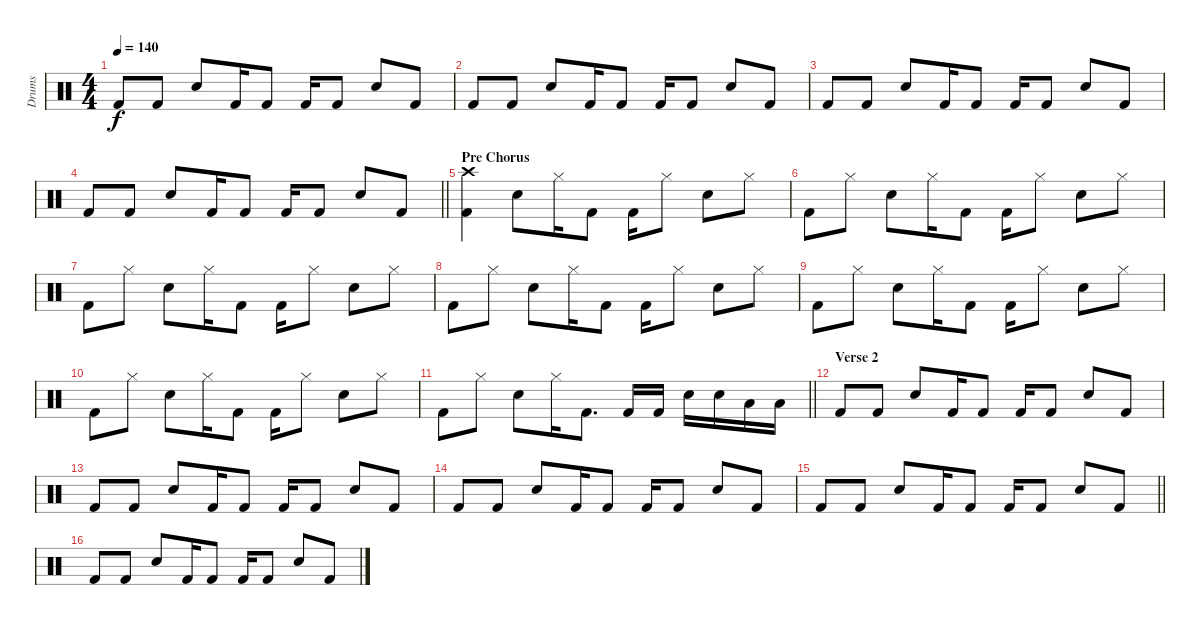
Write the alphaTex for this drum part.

\track ("Drums" "Drums") {instrument percussion}
\staff {score}
\articulation defaults
\ts (4 4)
\tempo 140
\clef neutral
\ks c "Kick (hit) 2".8{dy f} "Kick (hit) 2".8 "Snare (hit) 2".8 "Kick (hit) 2".16 "Kick (hit) 2".8 "Kick (hit) 2".16 "Kick (hit) 2".8 "Snare (hit) 2".8 "Kick (hit) 2".8
|
"Kick (hit) 2".8 "Kick (hit) 2".8 "Snare (hit) 2".8 "Kick (hit) 2".16 "Kick (hit) 2".8 "Kick (hit) 2".16 "Kick (hit) 2".8 "Snare (hit) 2".8 "Kick (hit) 2".8 |
"Kick (hit) 2".8 "Kick (hit) 2".8 "Snare (hit) 2".8 "Kick (hit) 2".16 "Kick (hit) 2".8 "Kick (hit) 2".16 "Kick (hit) 2".8 "Snare (hit) 2".8 "Kick (hit) 2".8 |
\barLineRight lightlight "Kick (hit) 2".8 "Kick (hit) 2".8 "Snare (hit) 2".8 "Kick (hit) 2".16 "Kick (hit) 2".8 "Kick (hit) 2".16 "Kick (hit) 2".8 "Snare (hit) 2".8 "Kick (hit) 2".8
|
\section ("" "Pre Chorus")
("Crash high (hit)" "Kick (hit) 2").4 "Snare (hit) 2".8 "Hi-Hat (closed)".16 "Kick (hit) 2".8 "Kick (hit) 2".16 "Hi-Hat (closed)".8 "Snare (hit) 2".8 "Hi-Hat (closed)".8 |
"Kick (hit) 2".8 "Hi-Hat (closed)".8 "Snare (hit) 2".8 "Hi-Hat (closed)".16 "Kick (hit) 2".8 "Kick (hit) 2".16 "Hi-Hat (closed)".8 "Snare (hit) 2".8 "Hi-Hat (closed)".8 |
"Kick (hit) 2".8 "Hi-Hat (closed)".8 "Snare (hit) 2".8 "Hi-Hat (closed)".16 "Kick (hit) 2".8 "Kick (hit) 2".16 "Hi-Hat (closed)".8 "Snare (hit) 2".8 "Hi-Hat (closed)".8 |
"Kick (hit) 2".8 "Hi-Hat (closed)".8 "Snare (hit) 2".8 "Hi-Hat (closed)".16 "Kick (hit) 2".8 "Kick (hit) 2".16 "Hi-Hat (closed)".8 "Snare (hit) 2".8 "Hi-Hat (closed)".8 |
"Kick (hit) 2".8 "Hi-Hat (closed)".8 "Snare (hit) 2".8 "Hi-Hat (closed)".16 "Kick (hit) 2".8 "Kick (hit) 2".16 "Hi-Hat (closed)".8 "Snare (hit) 2".8 "Hi-Hat (closed)".8 |
"Kick (hit) 2".8 "Hi-Hat (closed)".8 "Snare (hit) 2".8 "Hi-Hat (closed)".16 "Kick (hit) 2".8 "Kick (hit) 2".16 "Hi-Hat (closed)".8 "Snare (hit) 2".8 "Hi-Hat (closed)".8 |
\barLineRight lightlight "Kick (hit) 2".8 "Hi-Hat (closed)".8 "Snare (hit) 2".8 "Hi-Hat (closed)".16 "Kick (hit) 2".8{d} "Kick (hit) 2".16 "Kick (hit) 2".16 "Snare (hit) 2".16 "Snare (hit) 2".16 "Low Floor Tom (hit)".16 "Low Floor Tom (hit)".16
|
\section ("" "Verse 2")
"Kick (hit) 2".8 "Kick (hit) 2".8 "Snare (hit) 2".8 "Kick (hit) 2".16 "Kick (hit) 2".8 "Kick (hit) 2".16 "Kick (hit) 2".8 "Snare (hit) 2".8 "Kick (hit) 2".8 |
"Kick (hit) 2".8 "Kick (hit) 2".8 "Snare (hit) 2".8 "Kick (hit) 2".16 "Kick (hit) 2".8 "Kick (hit) 2".16 "Kick (hit) 2".8 "Snare (hit) 2".8 "Kick (hit) 2".8 |
"Kick (hit) 2".8 "Kick (hit) 2".8 "Snare (hit) 2".8 "Kick (hit) 2".16 "Kick (hit) 2".8 "Kick (hit) 2".16 "Kick (hit) 2".8 "Snare (hit) 2".8 "Kick (hit) 2".8 |
\barLineRight lightlight "Kick (hit) 2".8 "Kick (hit) 2".8 "Snare (hit) 2".8 "Kick (hit) 2".16 "Kick (hit) 2".8 "Kick (hit) 2".16 "Kick (hit) 2".8 "Snare (hit) 2".8 "Kick (hit) 2".8
|
"Kick (hit) 2".8 "Kick (hit) 2".8 "Snare (hit) 2".8 "Kick (hit) 2".16 "Kick (hit) 2".8 "Kick (hit) 2".16 "Kick (hit) 2".8 "Snare (hit) 2".8 "Kick (hit) 2".8
